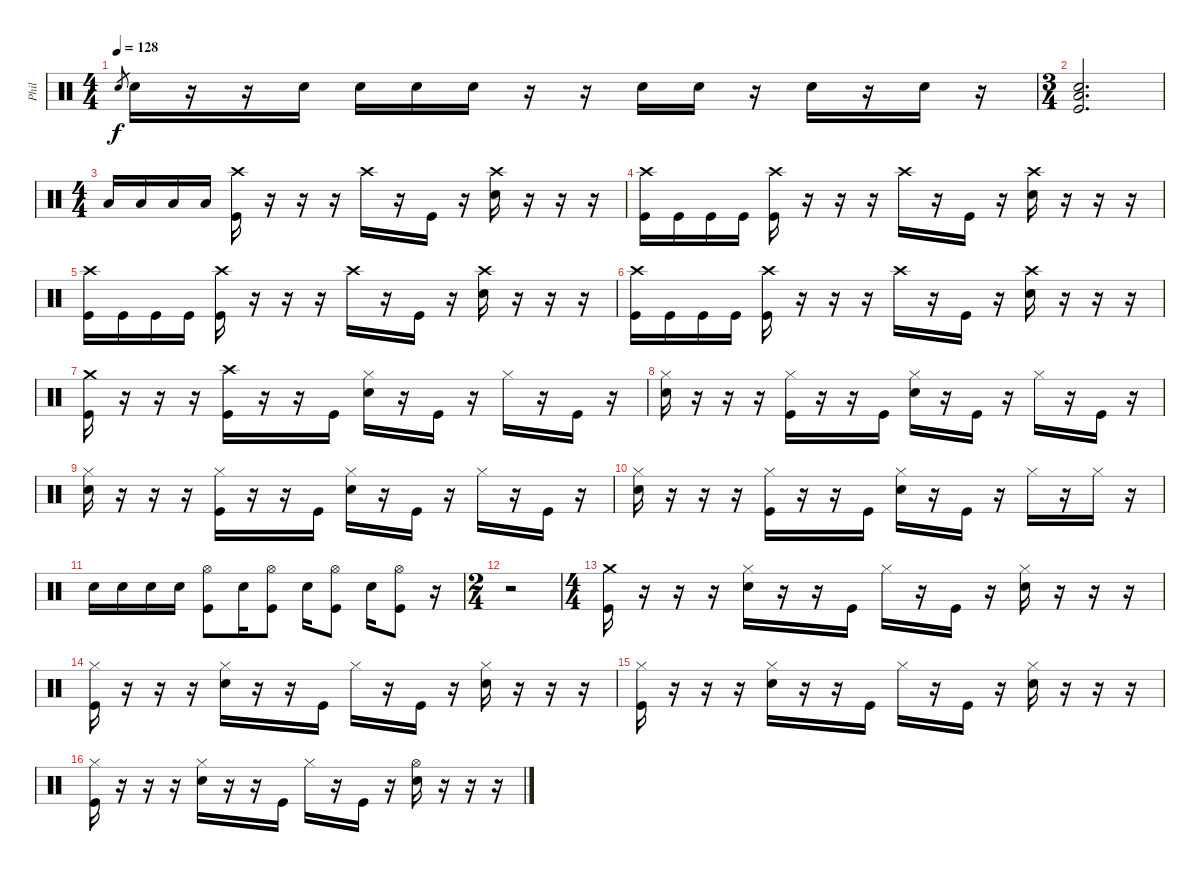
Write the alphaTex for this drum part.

\track ("Phil" "Phil") {instrument percussion}
\staff {score}
\articulation defaults
\ts (4 4)
\tempo 128
\clef neutral
\ks c "Electric Snare (hit)".8{gr dy f} "Electric Snare (hit)".16
r.16 r.16 "Electric Snare (hit)".16 "Electric Snare (hit)".16 "Electric Snare (hit)".16 "Electric Snare (hit)".16 r.16 r.16 "Electric Snare (hit)".16 "Electric Snare (hit)".16 r.16 "Electric Snare (hit)".16 r.16 "Electric Snare (hit)".16 r.16 |
\ts (3 4)
("Electric Snare (hit)" "Low Floor Tom (hit)" "Kick (hit)").2{d} |
\ts (4 4)
"Low Tom (hit)".16 "Low Tom (hit)".16 "Low Floor Tom (hit)".16 "Low Floor Tom (hit)".16 ("Crash high (hit)" "Kick (hit)").16 r.16 r.16 r.16 "Crash high (hit)".16 r.16 "Kick (hit)".16 r.16 ("Crash high (hit)" "Electric Snare (hit)").16 r.16 r.16 r.16 |
("Crash high (hit)" "Kick (hit)").16 "Kick (hit)".16 "Kick (hit)".16 "Kick (hit)".16 ("Crash high (hit)" "Kick (hit)").16 r.16 r.16 r.16 "Crash high (hit)".16 r.16 "Kick (hit)".16 r.16 ("Crash high (hit)" "Electric Snare (hit)").16 r.16 r.16 r.16 |
("Crash high (hit)" "Kick (hit)").16 "Kick (hit)".16 "Kick (hit)".16 "Kick (hit)".16 ("Crash high (hit)" "Kick (hit)").16 r.16 r.16 r.16 "Crash high (hit)".16 r.16 "Kick (hit)".16 r.16 ("Crash high (hit)" "Electric Snare (hit)").16 r.16 r.16 r.16 |
("Crash high (hit)" "Kick (hit)").16 "Kick (hit)".16 "Kick (hit)".16 "Kick (hit)".16 ("Crash high (hit)" "Kick (hit)").16 r.16 r.16 r.16 "Crash high (hit)".16 r.16 "Kick (hit)".16 r.16 ("Crash high (hit)" "Electric Snare (hit)").16 r.16 r.16 r.16 |
("Crash medium (hit)" "Kick (hit)").16 r.16 r.16 r.16 ("Crash high (hit)" "Kick (hit)").16 r.16 r.16 "Kick (hit)".16 ("Hi-Hat (closed)" "Electric Snare (hit)").16 r.16 "Kick (hit)".16 r.16 "Hi-Hat (closed)".16 r.16 "Kick (hit)".16 r.16 |
("Hi-Hat (closed)" "Electric Snare (hit)").16 r.16 r.16 r.16 ("Hi-Hat (closed)" "Kick (hit)").16 r.16 r.16 "Kick (hit)".16 ("Hi-Hat (closed)" "Electric Snare (hit)").16 r.16 "Kick (hit)".16 r.16 "Hi-Hat (closed)".16 r.16 "Kick (hit)".16 r.16 |
("Hi-Hat (closed)" "Electric Snare (hit)").16 r.16 r.16 r.16 ("Hi-Hat (closed)" "Kick (hit)").16 r.16 r.16 "Kick (hit)".16 ("Hi-Hat (closed)" "Electric Snare (hit)").16 r.16 "Kick (hit)".16 r.16 "Hi-Hat (closed)".16 r.16 "Kick (hit)".16 r.16 |
("Hi-Hat (closed)" "Electric Snare (hit)").16 r.16 r.16 r.16 ("Hi-Hat (closed)" "Kick (hit)").16 r.16 r.16 "Kick (hit)".16 ("Hi-Hat (closed)" "Electric Snare (hit)").16 r.16 "Kick (hit)".16 r.16 "Hi-Hat (closed)".16 r.16 "Hi-Hat (closed)".16 r.16 |
"Electric Snare (hit)".16 "Electric Snare (hit)".16 "Electric Snare (hit)".16 "Electric Snare (hit)".16 ("Hi-Hat (open)" "Kick (hit)").8 "Electric Snare (hit)".16 ("Hi-Hat (open)" "Kick (hit)").8 "Electric Snare (hit)".16 ("Hi-Hat (open)" "Kick (hit)").8 "Electric Snare (hit)".16 ("Hi-Hat (open)" "Kick (hit)").8 r.16 |
\ts (2 4)
r.2 |
\ts (4 4)
("Crash medium (hit)" "Kick (hit)").16 r.16 r.16 r.16 ("Hi-Hat (closed)" "Electric Snare (hit)").16 r.16 r.16 "Kick (hit)".16 "Hi-Hat (closed)".16 r.16 "Kick (hit)".16 r.16 ("Hi-Hat (closed)" "Electric Snare (hit)").16 r.16 r.16 r.16 |
("Hi-Hat (closed)" "Kick (hit)").16 r.16 r.16 r.16 ("Hi-Hat (closed)" "Electric Snare (hit)").16 r.16 r.16 "Kick (hit)".16 "Hi-Hat (closed)".16 r.16 "Kick (hit)".16 r.16 ("Hi-Hat (closed)" "Electric Snare (hit)").16 r.16 r.16 r.16 |
("Hi-Hat (closed)" "Kick (hit)").16 r.16 r.16 r.16 ("Hi-Hat (closed)" "Electric Snare (hit)").16 r.16 r.16 "Kick (hit)".16 "Hi-Hat (closed)".16 r.16 "Kick (hit)".16 r.16 ("Hi-Hat (closed)" "Electric Snare (hit)").16 r.16 r.16 r.16 |
("Hi-Hat (closed)" "Kick (hit)").16 r.16 r.16 r.16 ("Hi-Hat (closed)" "Electric Snare (hit)").16 r.16 r.16 "Kick (hit)".16 "Hi-Hat (closed)".16 r.16 "Kick (hit)".16 r.16 ("Hi-Hat (open)" "Electric Snare (hit)").16 r.16 r.16 r.16
